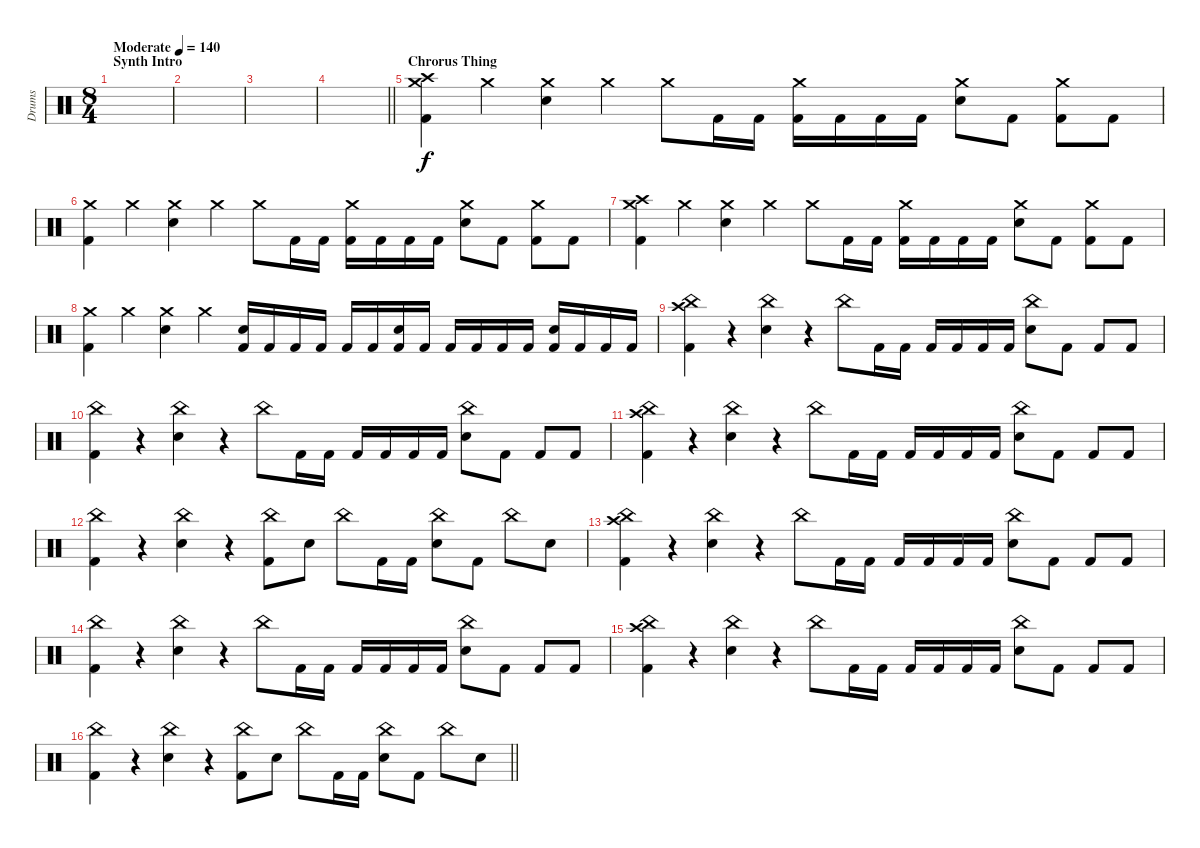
\track ("Drums" "Drums") {instrument percussion}
\staff {score}
\articulation defaults
\ts (8 4)
\section ("" "Synth Intro")
\tempo (140 "Moderate")
\clef neutral
\ks c
|
|
|
\barLineRight lightlight
|
\section ("" "Chrorus Thing")
("Crash medium (hit)" "Crash high (hit)" "Kick (hit) 2").4 "Crash medium (hit)".4 ("Crash medium (hit)" "Snare (hit) 2").4 "Crash medium (hit)".4 "Crash medium (hit)".8 "Kick (hit) 2".16 "Kick (hit) 2".16 ("Crash medium (hit)" "Kick (hit) 2").16 "Kick (hit) 2".16 "Kick (hit) 2".16 "Kick (hit) 2".16 ("Crash medium (hit)" "Snare (hit) 2").8 "Kick (hit) 2".8 ("Crash medium (hit)" "Kick (hit) 2").8 "Kick (hit) 2".8 |
("Crash medium (hit)" "Kick (hit) 2").4 "Crash medium (hit)".4 ("Crash medium (hit)" "Snare (hit) 2").4 "Crash medium (hit)".4 "Crash medium (hit)".8 "Kick (hit) 2".16 "Kick (hit) 2".16 ("Crash medium (hit)" "Kick (hit) 2").16 "Kick (hit) 2".16 "Kick (hit) 2".16 "Kick (hit) 2".16 ("Crash medium (hit)" "Snare (hit) 2").8 "Kick (hit) 2".8 ("Crash medium (hit)" "Kick (hit) 2").8 "Kick (hit) 2".8 |
("Crash medium (hit)" "Crash high (hit)" "Kick (hit) 2").4 "Crash medium (hit)".4 ("Crash medium (hit)" "Snare (hit) 2").4 "Crash medium (hit)".4 "Crash medium (hit)".8 "Kick (hit) 2".16 "Kick (hit) 2".16 ("Crash medium (hit)" "Kick (hit) 2").16 "Kick (hit) 2".16 "Kick (hit) 2".16 "Kick (hit) 2".16 ("Crash medium (hit)" "Snare (hit) 2").8 "Kick (hit) 2".8 ("Crash medium (hit)" "Kick (hit) 2").8 "Kick (hit) 2".8 |
("Crash medium (hit)" "Kick (hit) 2").4 "Crash medium (hit)".4 ("Crash medium (hit)" "Snare (hit) 2").4 "Crash medium (hit)".4 ("Snare (hit) 2" "Kick (hit) 2").16 "Kick (hit) 2".16 "Kick (hit) 2".16 "Kick (hit) 2".16 "Kick (hit) 2".16 "Kick (hit) 2".16 ("Snare (hit) 2" "Kick (hit) 2").16 "Kick (hit) 2".16 "Kick (hit) 2".16 "Kick (hit) 2".16 "Kick (hit) 2".16 "Kick (hit) 2".16 ("Snare (hit) 2" "Kick (hit) 2").16 "Kick (hit) 2".16 "Kick (hit) 2".16 "Kick (hit) 2".16 |
("China (hit)" "Crash high (hit)" "Kick (hit) 2").4 r.4 ("China (hit)" "Snare (hit) 2").4 r.4 "China (hit)".8 "Kick (hit) 2".16 "Kick (hit) 2".16 "Kick (hit) 2".16 "Kick (hit) 2".16 "Kick (hit) 2".16 "Kick (hit) 2".16 ("China (hit)" "Snare (hit) 2").8 "Kick (hit) 2".8 "Kick (hit) 2".8 "Kick (hit) 2".8 |
("China (hit)" "Kick (hit) 2").4 r.4 ("China (hit)" "Snare (hit) 2").4 r.4 "China (hit)".8 "Kick (hit) 2".16 "Kick (hit) 2".16 "Kick (hit) 2".16 "Kick (hit) 2".16 "Kick (hit) 2".16 "Kick (hit) 2".16 ("China (hit)" "Snare (hit) 2").8 "Kick (hit) 2".8 "Kick (hit) 2".8 "Kick (hit) 2".8 |
("China (hit)" "Crash high (hit)" "Kick (hit) 2").4 r.4 ("China (hit)" "Snare (hit) 2").4 r.4 "China (hit)".8 "Kick (hit) 2".16 "Kick (hit) 2".16 "Kick (hit) 2".16 "Kick (hit) 2".16 "Kick (hit) 2".16 "Kick (hit) 2".16 ("China (hit)" "Snare (hit) 2").8 "Kick (hit) 2".8 "Kick (hit) 2".8 "Kick (hit) 2".8 |
("China (hit)" "Kick (hit) 2").4 r.4 ("China (hit)" "Snare (hit) 2").4 r.4 ("China (hit)" "Kick (hit) 2").8 "Snare (hit) 2".8 "China (hit)".8 "Kick (hit) 2".16 "Kick (hit) 2".16 ("China (hit)" "Snare (hit) 2").8 "Kick (hit) 2".8 "China (hit)".8 "Snare (hit) 2".8 |
("China (hit)" "Crash high (hit)" "Kick (hit) 2").4 r.4 ("China (hit)" "Snare (hit) 2").4 r.4 "China (hit)".8 "Kick (hit) 2".16 "Kick (hit) 2".16 "Kick (hit) 2".16 "Kick (hit) 2".16 "Kick (hit) 2".16 "Kick (hit) 2".16 ("China (hit)" "Snare (hit) 2").8 "Kick (hit) 2".8 "Kick (hit) 2".8 "Kick (hit) 2".8 |
("China (hit)" "Kick (hit) 2").4 r.4 ("China (hit)" "Snare (hit) 2").4 r.4 "China (hit)".8 "Kick (hit) 2".16 "Kick (hit) 2".16 "Kick (hit) 2".16 "Kick (hit) 2".16 "Kick (hit) 2".16 "Kick (hit) 2".16 ("China (hit)" "Snare (hit) 2").8 "Kick (hit) 2".8 "Kick (hit) 2".8 "Kick (hit) 2".8 |
("China (hit)" "Crash high (hit)" "Kick (hit) 2").4 r.4 ("China (hit)" "Snare (hit) 2").4 r.4 "China (hit)".8 "Kick (hit) 2".16 "Kick (hit) 2".16 "Kick (hit) 2".16 "Kick (hit) 2".16 "Kick (hit) 2".16 "Kick (hit) 2".16 ("China (hit)" "Snare (hit) 2").8 "Kick (hit) 2".8 "Kick (hit) 2".8 "Kick (hit) 2".8 |
\barLineRight lightlight
("China (hit)" "Kick (hit) 2").4 r.4 ("China (hit)" "Snare (hit) 2").4 r.4 ("China (hit)" "Kick (hit) 2").8 "Snare (hit) 2".8 "China (hit)".8 "Kick (hit) 2".16 "Kick (hit) 2".16 ("China (hit)" "Snare (hit) 2").8 "Kick (hit) 2".8 "China (hit)".8 "Snare (hit) 2".8
